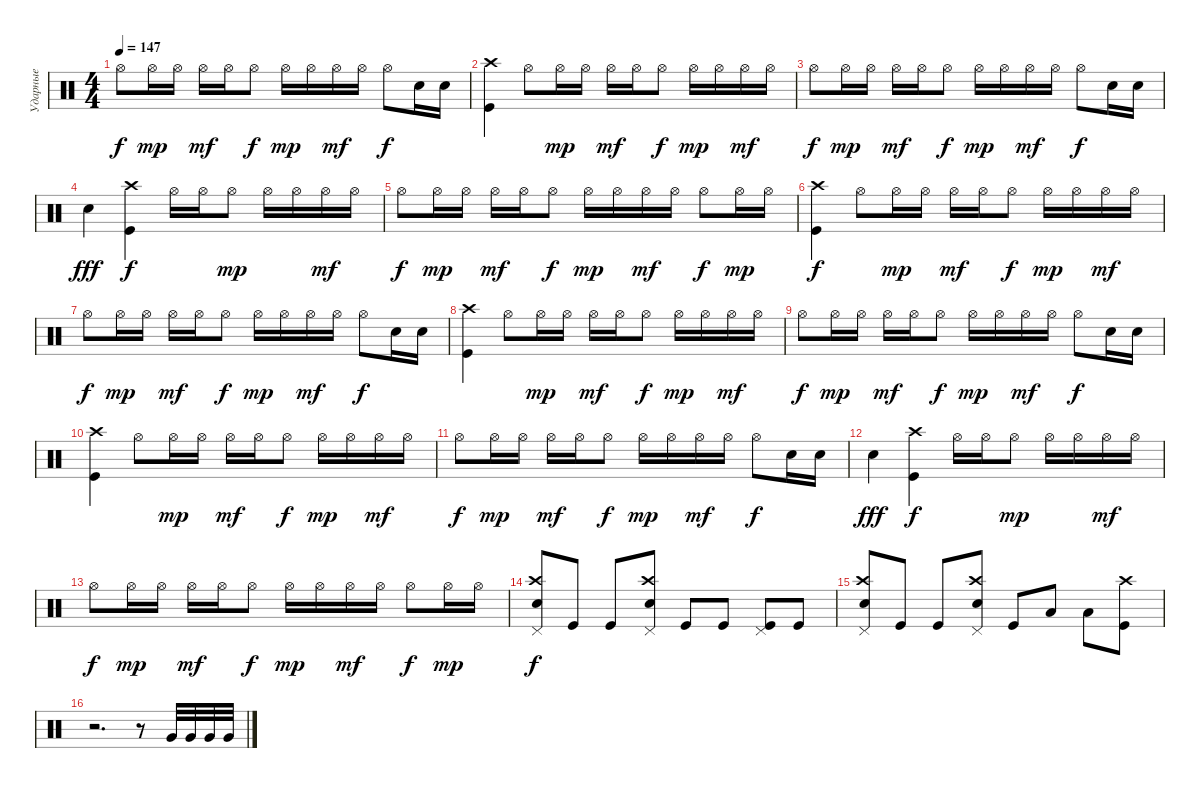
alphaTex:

\track ("Ударные" "Ударные") {instrument percussion}
\staff {score}
\articulation defaults
\ts (4 4)
\tempo 147
\clef neutral
\ks c "Hi-Hat (open)".8{dy f} "Hi-Hat (open)".16{dy mp} "Hi-Hat (open)".16 "Hi-Hat (open)".16{dy mf} "Hi-Hat (open)".16 "Hi-Hat (open)".8{dy f} "Hi-Hat (open)".16{dy mp} "Hi-Hat (open)".16 "Hi-Hat (open)".16{dy mf} "Hi-Hat (open)".16 "Hi-Hat (open)".8{dy f} "Snare (hit) 2".16 "Snare (hit) 2".16
|
("Kick (hit)" "Crash high (hit)").4 "Hi-Hat (open)".8 "Hi-Hat (open)".16{dy mp} "Hi-Hat (open)".16 "Hi-Hat (open)".16{dy mf} "Hi-Hat (open)".16 "Hi-Hat (open)".8{dy f} "Hi-Hat (open)".16{dy mp} "Hi-Hat (open)".16 "Hi-Hat (open)".16{dy mf} "Hi-Hat (open)".16 |
"Hi-Hat (open)".8{dy f} "Hi-Hat (open)".16{dy mp} "Hi-Hat (open)".16 "Hi-Hat (open)".16{dy mf} "Hi-Hat (open)".16 "Hi-Hat (open)".8{dy f} "Hi-Hat (open)".16{dy mp} "Hi-Hat (open)".16 "Hi-Hat (open)".16{dy mf} "Hi-Hat (open)".16 "Hi-Hat (open)".8{dy f} "Snare (hit) 2".16 "Snare (hit) 2".16 |
"Snare (hit) 2".4{dy fff} ("Kick (hit)" "Crash high (hit)").4{dy f} "Hi-Hat (open)".16 "Hi-Hat (open)".16 "Hi-Hat (open)".8{dy mp} "Hi-Hat (open)".16 "Hi-Hat (open)".16 "Hi-Hat (open)".16{dy mf} "Hi-Hat (open)".16 |
"Hi-Hat (open)".8{dy f} "Hi-Hat (open)".16{dy mp} "Hi-Hat (open)".16 "Hi-Hat (open)".16{dy mf} "Hi-Hat (open)".16 "Hi-Hat (open)".8{dy f} "Hi-Hat (open)".16{dy mp} "Hi-Hat (open)".16 "Hi-Hat (open)".16{dy mf} "Hi-Hat (open)".16 "Hi-Hat (open)".8{dy f} "Hi-Hat (open)".16{dy mp} "Hi-Hat (open)".16 |
("Kick (hit)" "Crash high (hit)").4{dy f} "Hi-Hat (open)".8 "Hi-Hat (open)".16{dy mp} "Hi-Hat (open)".16 "Hi-Hat (open)".16{dy mf} "Hi-Hat (open)".16 "Hi-Hat (open)".8{dy f} "Hi-Hat (open)".16{dy mp} "Hi-Hat (open)".16 "Hi-Hat (open)".16{dy mf} "Hi-Hat (open)".16 |
"Hi-Hat (open)".8{dy f} "Hi-Hat (open)".16{dy mp} "Hi-Hat (open)".16 "Hi-Hat (open)".16{dy mf} "Hi-Hat (open)".16 "Hi-Hat (open)".8{dy f} "Hi-Hat (open)".16{dy mp} "Hi-Hat (open)".16 "Hi-Hat (open)".16{dy mf} "Hi-Hat (open)".16 "Hi-Hat (open)".8{dy f} "Snare (hit) 2".16 "Snare (hit) 2".16 |
("Kick (hit)" "Crash high (hit)").4 "Hi-Hat (open)".8 "Hi-Hat (open)".16{dy mp} "Hi-Hat (open)".16 "Hi-Hat (open)".16{dy mf} "Hi-Hat (open)".16 "Hi-Hat (open)".8{dy f} "Hi-Hat (open)".16{dy mp} "Hi-Hat (open)".16 "Hi-Hat (open)".16{dy mf} "Hi-Hat (open)".16 |
"Hi-Hat (open)".8{dy f} "Hi-Hat (open)".16{dy mp} "Hi-Hat (open)".16 "Hi-Hat (open)".16{dy mf} "Hi-Hat (open)".16 "Hi-Hat (open)".8{dy f} "Hi-Hat (open)".16{dy mp} "Hi-Hat (open)".16 "Hi-Hat (open)".16{dy mf} "Hi-Hat (open)".16 "Hi-Hat (open)".8{dy f} "Snare (hit) 2".16 "Snare (hit) 2".16 |
("Kick (hit)" "Crash high (hit)").4 "Hi-Hat (open)".8 "Hi-Hat (open)".16{dy mp} "Hi-Hat (open)".16 "Hi-Hat (open)".16{dy mf} "Hi-Hat (open)".16 "Hi-Hat (open)".8{dy f} "Hi-Hat (open)".16{dy mp} "Hi-Hat (open)".16 "Hi-Hat (open)".16{dy mf} "Hi-Hat (open)".16 |
"Hi-Hat (open)".8{dy f} "Hi-Hat (open)".16{dy mp} "Hi-Hat (open)".16 "Hi-Hat (open)".16{dy mf} "Hi-Hat (open)".16 "Hi-Hat (open)".8{dy f} "Hi-Hat (open)".16{dy mp} "Hi-Hat (open)".16 "Hi-Hat (open)".16{dy mf} "Hi-Hat (open)".16 "Hi-Hat (open)".8{dy f} "Snare (hit) 2".16 "Snare (hit) 2".16 |
"Snare (hit) 2".4{dy fff} ("Kick (hit)" "Crash high (hit)").4{dy f} "Hi-Hat (open)".16 "Hi-Hat (open)".16 "Hi-Hat (open)".8{dy mp} "Hi-Hat (open)".16 "Hi-Hat (open)".16 "Hi-Hat (open)".16{dy mf} "Hi-Hat (open)".16 |
"Hi-Hat (open)".8{dy f} "Hi-Hat (open)".16{dy mp} "Hi-Hat (open)".16 "Hi-Hat (open)".16{dy mf} "Hi-Hat (open)".16 "Hi-Hat (open)".8{dy f} "Hi-Hat (open)".16{dy mp} "Hi-Hat (open)".16 "Hi-Hat (open)".16{dy mf} "Hi-Hat (open)".16 "Hi-Hat (open)".8{dy f} "Hi-Hat (open)".16{dy mp} "Hi-Hat (open)".16 |
("Snare (hit) 2" "Crash high (hit)" "Pedal Hi-Hat (hit)").8{dy f} "Kick (hit)".8 "Kick (hit)".8 ("Snare (hit) 2" "Crash high (hit)" "Pedal Hi-Hat (hit)").8 "Kick (hit)".8 "Kick (hit)".8 ("Kick (hit)" "Pedal Hi-Hat (hit)").8 "Kick (hit)".8 |
("Snare (hit) 2" "Crash high (hit)" "Pedal Hi-Hat (hit)").8 "Kick (hit)".8 "Kick (hit)".8 ("Snare (hit) 2" "Crash high (hit)" "Pedal Hi-Hat (hit)").8 "Kick (hit)".8 "Low Tom (hit)".8 "Low Tom (hit)".8 ("Kick (hit)" "Crash high (hit)").8 |
r.2{d} r.8 "Very Low Tom (hit)".32 "Very Low Tom (hit)".32 "Very Low Tom (hit)".32 "Very Low Tom (hit)".32
